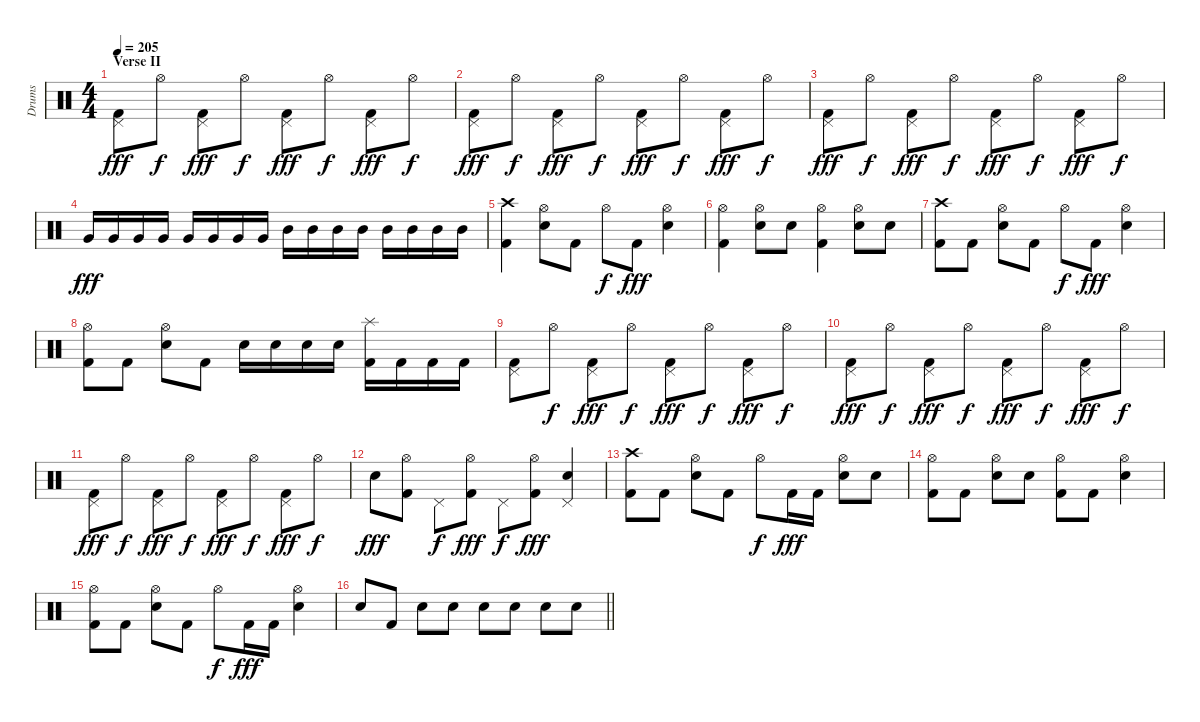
\track ("Drums" "Drums") {instrument percussion}
\staff {score}
\articulation defaults
\ts (4 4)
\section ("" "Verse II")
\tempo 205
\clef neutral
\ks c
("Pedal Hi-Hat (hit)" "Kick (hit) 2").8{dy fff} "Hi-Hat (open)".8{dy f} ("Pedal Hi-Hat (hit)" "Kick (hit) 2").8{dy fff} "Hi-Hat (open)".8{dy f} ("Pedal Hi-Hat (hit)" "Kick (hit) 2").8{dy fff} "Hi-Hat (open)".8{dy f} ("Pedal Hi-Hat (hit)" "Kick (hit) 2").8{dy fff} "Hi-Hat (open)".8{dy f} |
("Pedal Hi-Hat (hit)" "Kick (hit) 2").8{dy fff} "Hi-Hat (open)".8{dy f} ("Pedal Hi-Hat (hit)" "Kick (hit) 2").8{dy fff} "Hi-Hat (open)".8{dy f} ("Pedal Hi-Hat (hit)" "Kick (hit) 2").8{dy fff} "Hi-Hat (open)".8{dy f} ("Pedal Hi-Hat (hit)" "Kick (hit) 2").8{dy fff} "Hi-Hat (open)".8{dy f} |
("Pedal Hi-Hat (hit)" "Kick (hit) 2").8{dy fff} "Hi-Hat (open)".8{dy f} ("Pedal Hi-Hat (hit)" "Kick (hit) 2").8{dy fff} "Hi-Hat (open)".8{dy f} ("Pedal Hi-Hat (hit)" "Kick (hit) 2").8{dy fff} "Hi-Hat (open)".8{dy f} ("Pedal Hi-Hat (hit)" "Kick (hit) 2").8{dy fff} "Hi-Hat (open)".8{dy f} |
"Very Low Tom (hit)".16{dy fff} "Very Low Tom (hit)".16 "Very Low Tom (hit)".16 "Very Low Tom (hit)".16 "Very Low Tom (hit)".16 "Very Low Tom (hit)".16 "Very Low Tom (hit)".16 "Very Low Tom (hit)".16 "Mid Tom (hit)".16 "Mid Tom (hit)".16 "Mid Tom (hit)".16 "Mid Tom (hit)".16 "Mid Tom (hit)".16 "Mid Tom (hit)".16 "Mid Tom (hit)".16 "Mid Tom (hit)".16 |
("Crash high (hit)" "Kick (hit) 2").4 ("Hi-Hat (open)" "Snare (hit) 2").8 "Kick (hit) 2".8 "Hi-Hat (open)".8{dy f} "Kick (hit) 2".8{dy fff} ("Hi-Hat (open)" "Snare (hit) 2").4 |
("Hi-Hat (open)" "Kick (hit) 2").4 ("Hi-Hat (open)" "Snare (hit) 2").8 "Snare (hit) 2".8 ("Hi-Hat (open)" "Kick (hit) 2").4 ("Hi-Hat (open)" "Snare (hit) 2").8 "Snare (hit) 2".8 |
("Crash high (hit)" "Kick (hit) 2").8 "Kick (hit) 2".8 ("Hi-Hat (open)" "Snare (hit) 2").8 "Kick (hit) 2".8 "Hi-Hat (open)".8{dy f} "Kick (hit) 2".8{dy fff} ("Hi-Hat (open)" "Snare (hit) 2").4 |
("Hi-Hat (open)" "Kick (hit) 2").8 "Kick (hit) 2".8 ("Hi-Hat (open)" "Snare (hit) 2").8 "Kick (hit) 2".8 "Snare (hit) 2".16 "Snare (hit) 2".16 "Snare (hit) 2".16 "Snare (hit) 2".16 ("Splash (hit)" "Kick (hit) 2").16 "Kick (hit) 2".16 "Kick (hit) 2".16 "Kick (hit) 2".16 |
("Pedal Hi-Hat (hit)" "Kick (hit) 2").8 "Hi-Hat (open)".8{dy f} ("Pedal Hi-Hat (hit)" "Kick (hit) 2").8{dy fff} "Hi-Hat (open)".8{dy f} ("Pedal Hi-Hat (hit)" "Kick (hit) 2").8{dy fff} "Hi-Hat (open)".8{dy f} ("Pedal Hi-Hat (hit)" "Kick (hit) 2").8{dy fff} "Hi-Hat (open)".8{dy f} |
("Pedal Hi-Hat (hit)" "Kick (hit) 2").8{dy fff} "Hi-Hat (open)".8{dy f} ("Pedal Hi-Hat (hit)" "Kick (hit) 2").8{dy fff} "Hi-Hat (open)".8{dy f} ("Pedal Hi-Hat (hit)" "Kick (hit) 2").8{dy fff} "Hi-Hat (open)".8{dy f} ("Pedal Hi-Hat (hit)" "Kick (hit) 2").8{dy fff} "Hi-Hat (open)".8{dy f} |
("Pedal Hi-Hat (hit)" "Kick (hit) 2").8{dy fff} "Hi-Hat (open)".8{dy f} ("Pedal Hi-Hat (hit)" "Kick (hit) 2").8{dy fff} "Hi-Hat (open)".8{dy f} ("Pedal Hi-Hat (hit)" "Kick (hit) 2").8{dy fff} "Hi-Hat (open)".8{dy f} ("Pedal Hi-Hat (hit)" "Kick (hit) 2").8{dy fff} "Hi-Hat (open)".8{dy f} |
"Snare (hit) 2".8{dy fff} ("Hi-Hat (open)" "Kick (hit) 2").8 "Pedal Hi-Hat (hit)".8{dy f} ("Hi-Hat (open)" "Kick (hit) 2").8{dy fff} "Pedal Hi-Hat (hit)".8{dy f} ("Hi-Hat (open)" "Kick (hit) 2").8{dy fff} ("Pedal Hi-Hat (hit)" "Snare (hit) 2").4 |
("Crash high (hit)" "Kick (hit) 2").8 "Kick (hit) 2".8 ("Hi-Hat (open)" "Snare (hit) 2").8 "Kick (hit) 2".8 "Hi-Hat (open)".8{dy f} "Kick (hit) 2".16{dy fff} "Kick (hit) 2".16 ("Hi-Hat (open)" "Snare (hit) 2").8 "Snare (hit) 2".8 |
("Hi-Hat (open)" "Kick (hit) 2").8 "Kick (hit) 2".8 ("Hi-Hat (open)" "Snare (hit) 2").8 "Snare (hit) 2".8 ("Hi-Hat (open)" "Kick (hit) 2").8 "Kick (hit) 2".8 ("Hi-Hat (open)" "Snare (hit) 2").4 |
("Hi-Hat (open)" "Kick (hit) 2").8 "Kick (hit) 2".8 ("Hi-Hat (open)" "Snare (hit) 2").8 "Kick (hit) 2".8 "Hi-Hat (open)".8{dy f} "Kick (hit) 2".16{dy fff} "Kick (hit) 2".16 ("Hi-Hat (open)" "Snare (hit) 2").4 |
\barLineRight lightlight "Snare (hit) 2".8 "Kick (hit) 2".8 "Snare (hit) 2".8 "Snare (hit) 2".8 "Snare (hit) 2".8 "Snare (hit) 2".8 "Snare (hit) 2".8 "Snare (hit) 2".8
